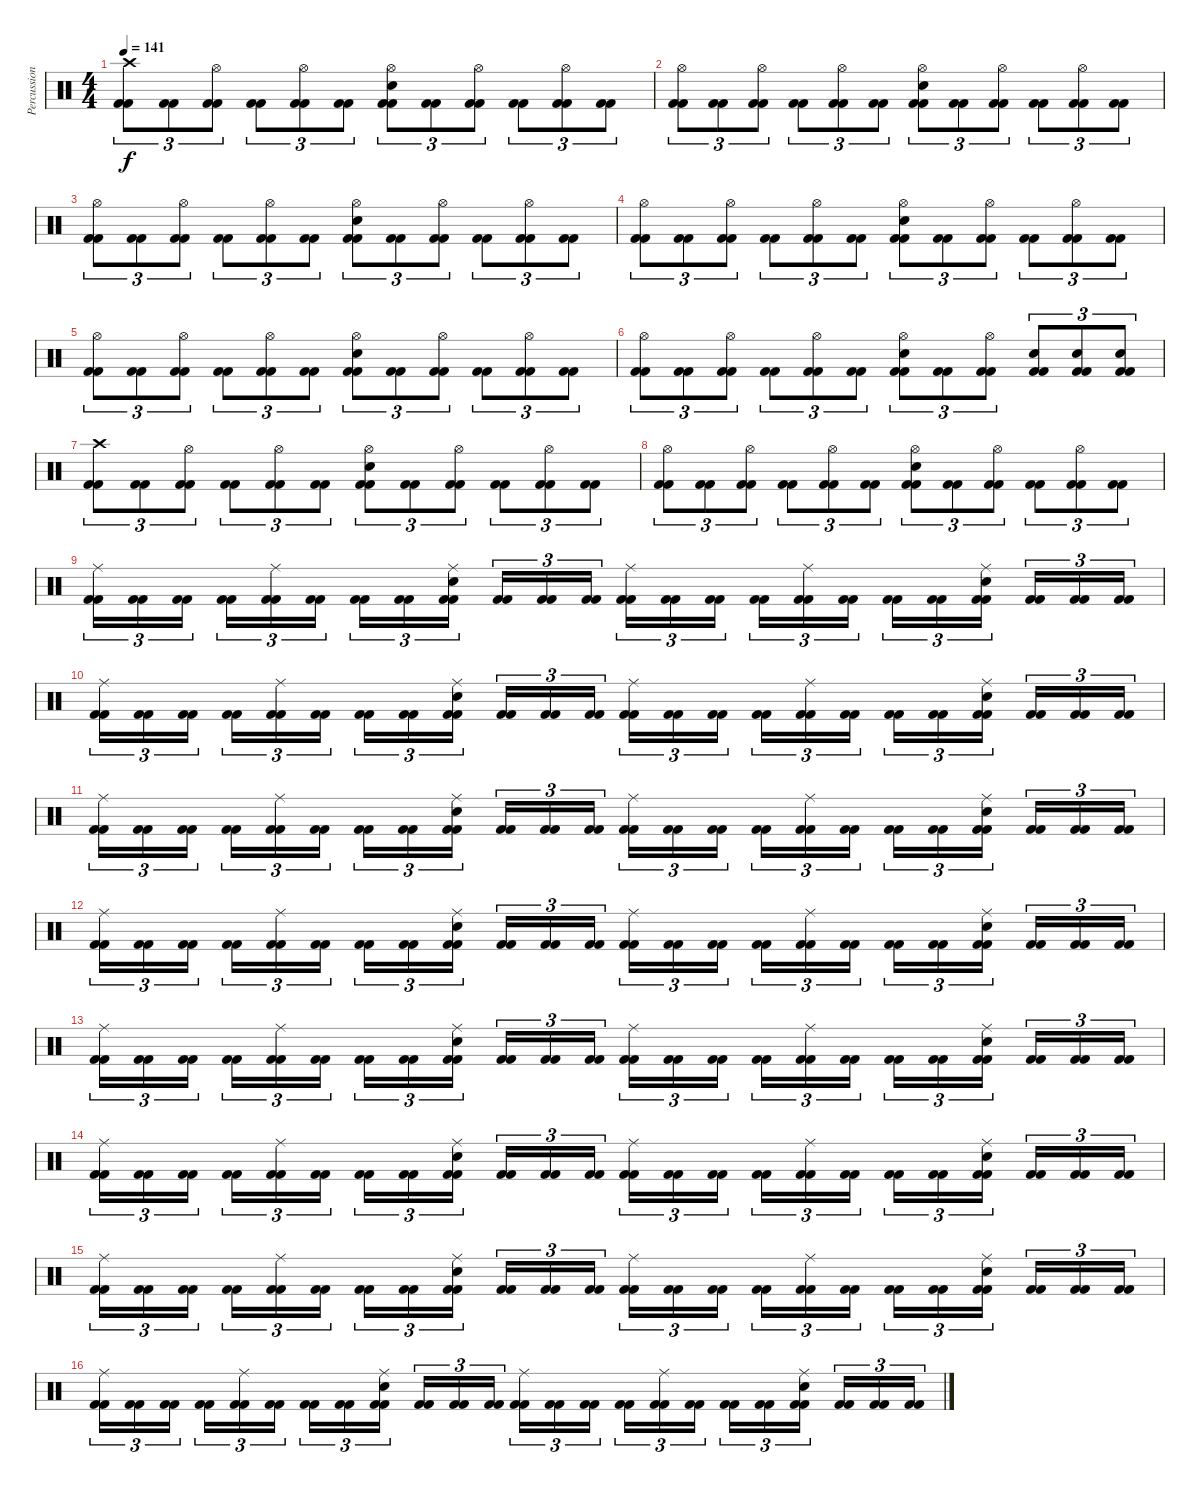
\track ("Percussions" "Percussion") {instrument percussion}
\staff {score}
\articulation defaults
\ts (4 4)
\tempo 141
\clef neutral
\ks c
("Crash high (hit)" "Kick (hit) 2" "Kick (hit) 2").8{tu (3 2) dy f} ("Kick (hit) 2" "Kick (hit) 2").8{tu (3 2)} ("Hi-Hat (open)" "Kick (hit) 2" "Kick (hit) 2").8{tu (3 2)} ("Kick (hit) 2" "Kick (hit) 2").8{tu (3 2)} ("Hi-Hat (open)" "Kick (hit) 2" "Kick (hit) 2").8{tu (3 2)} ("Kick (hit) 2" "Kick (hit) 2").8{tu (3 2)} ("Hi-Hat (open)" "Snare (hit) 2" "Kick (hit) 2" "Kick (hit) 2").8{tu (3 2)} ("Kick (hit) 2" "Kick (hit) 2").8{tu (3 2)} ("Hi-Hat (open)" "Kick (hit) 2" "Kick (hit) 2").8{tu (3 2)} ("Kick (hit) 2" "Kick (hit) 2").8{tu (3 2)} ("Hi-Hat (open)" "Kick (hit) 2" "Kick (hit) 2").8{tu (3 2)} ("Kick (hit) 2" "Kick (hit) 2").8{tu (3 2)} |
("Hi-Hat (open)" "Kick (hit) 2" "Kick (hit) 2").8{tu (3 2)} ("Kick (hit) 2" "Kick (hit) 2").8{tu (3 2)} ("Hi-Hat (open)" "Kick (hit) 2" "Kick (hit) 2").8{tu (3 2)} ("Kick (hit) 2" "Kick (hit) 2").8{tu (3 2)} ("Hi-Hat (open)" "Kick (hit) 2" "Kick (hit) 2").8{tu (3 2)} ("Kick (hit) 2" "Kick (hit) 2").8{tu (3 2)} ("Hi-Hat (open)" "Snare (hit) 2" "Kick (hit) 2" "Kick (hit) 2").8{tu (3 2)} ("Kick (hit) 2" "Kick (hit) 2").8{tu (3 2)} ("Hi-Hat (open)" "Kick (hit) 2" "Kick (hit) 2").8{tu (3 2)} ("Kick (hit) 2" "Kick (hit) 2").8{tu (3 2)} ("Hi-Hat (open)" "Kick (hit) 2" "Kick (hit) 2").8{tu (3 2)} ("Kick (hit) 2" "Kick (hit) 2").8{tu (3 2)} |
("Hi-Hat (open)" "Kick (hit) 2" "Kick (hit) 2").8{tu (3 2)} ("Kick (hit) 2" "Kick (hit) 2").8{tu (3 2)} ("Hi-Hat (open)" "Kick (hit) 2" "Kick (hit) 2").8{tu (3 2)} ("Kick (hit) 2" "Kick (hit) 2").8{tu (3 2)} ("Hi-Hat (open)" "Kick (hit) 2" "Kick (hit) 2").8{tu (3 2)} ("Kick (hit) 2" "Kick (hit) 2").8{tu (3 2)} ("Hi-Hat (open)" "Snare (hit) 2" "Kick (hit) 2" "Kick (hit) 2").8{tu (3 2)} ("Kick (hit) 2" "Kick (hit) 2").8{tu (3 2)} ("Hi-Hat (open)" "Kick (hit) 2" "Kick (hit) 2").8{tu (3 2)} ("Kick (hit) 2" "Kick (hit) 2").8{tu (3 2)} ("Hi-Hat (open)" "Kick (hit) 2" "Kick (hit) 2").8{tu (3 2)} ("Kick (hit) 2" "Kick (hit) 2").8{tu (3 2)} |
("Hi-Hat (open)" "Kick (hit) 2" "Kick (hit) 2").8{tu (3 2)} ("Kick (hit) 2" "Kick (hit) 2").8{tu (3 2)} ("Hi-Hat (open)" "Kick (hit) 2" "Kick (hit) 2").8{tu (3 2)} ("Kick (hit) 2" "Kick (hit) 2").8{tu (3 2)} ("Hi-Hat (open)" "Kick (hit) 2" "Kick (hit) 2").8{tu (3 2)} ("Kick (hit) 2" "Kick (hit) 2").8{tu (3 2)} ("Hi-Hat (open)" "Snare (hit) 2" "Kick (hit) 2" "Kick (hit) 2").8{tu (3 2)} ("Kick (hit) 2" "Kick (hit) 2").8{tu (3 2)} ("Hi-Hat (open)" "Kick (hit) 2" "Kick (hit) 2").8{tu (3 2)} ("Kick (hit) 2" "Kick (hit) 2").8{tu (3 2)} ("Hi-Hat (open)" "Kick (hit) 2" "Kick (hit) 2").8{tu (3 2)} ("Kick (hit) 2" "Kick (hit) 2").8{tu (3 2)} |
("Hi-Hat (open)" "Kick (hit) 2" "Kick (hit) 2").8{tu (3 2)} ("Kick (hit) 2" "Kick (hit) 2").8{tu (3 2)} ("Hi-Hat (open)" "Kick (hit) 2" "Kick (hit) 2").8{tu (3 2)} ("Kick (hit) 2" "Kick (hit) 2").8{tu (3 2)} ("Hi-Hat (open)" "Kick (hit) 2" "Kick (hit) 2").8{tu (3 2)} ("Kick (hit) 2" "Kick (hit) 2").8{tu (3 2)} ("Hi-Hat (open)" "Snare (hit) 2" "Kick (hit) 2" "Kick (hit) 2").8{tu (3 2)} ("Kick (hit) 2" "Kick (hit) 2").8{tu (3 2)} ("Hi-Hat (open)" "Kick (hit) 2" "Kick (hit) 2").8{tu (3 2)} ("Kick (hit) 2" "Kick (hit) 2").8{tu (3 2)} ("Hi-Hat (open)" "Kick (hit) 2" "Kick (hit) 2").8{tu (3 2)} ("Kick (hit) 2" "Kick (hit) 2").8{tu (3 2)} |
("Hi-Hat (open)" "Kick (hit) 2" "Kick (hit) 2").8{tu (3 2)} ("Kick (hit) 2" "Kick (hit) 2").8{tu (3 2)} ("Hi-Hat (open)" "Kick (hit) 2" "Kick (hit) 2").8{tu (3 2)} ("Kick (hit) 2" "Kick (hit) 2").8{tu (3 2)} ("Hi-Hat (open)" "Kick (hit) 2" "Kick (hit) 2").8{tu (3 2)} ("Kick (hit) 2" "Kick (hit) 2").8{tu (3 2)} ("Hi-Hat (open)" "Snare (hit) 2" "Kick (hit) 2" "Kick (hit) 2").8{tu (3 2)} ("Kick (hit) 2" "Kick (hit) 2").8{tu (3 2)} ("Hi-Hat (open)" "Kick (hit) 2" "Kick (hit) 2").8{tu (3 2)} ("Snare (hit) 2" "Kick (hit) 2" "Kick (hit) 2").8{tu (3 2)} ("Snare (hit) 2" "Kick (hit) 2" "Kick (hit) 2").8{tu (3 2)} ("Snare (hit) 2" "Kick (hit) 2" "Kick (hit) 2").8{tu (3 2)} |
("Crash high (hit)" "Kick (hit) 2" "Kick (hit) 2").8{tu (3 2)} ("Kick (hit) 2" "Kick (hit) 2").8{tu (3 2)} ("Hi-Hat (open)" "Kick (hit) 2" "Kick (hit) 2").8{tu (3 2)} ("Kick (hit) 2" "Kick (hit) 2").8{tu (3 2)} ("Hi-Hat (open)" "Kick (hit) 2" "Kick (hit) 2").8{tu (3 2)} ("Kick (hit) 2" "Kick (hit) 2").8{tu (3 2)} ("Hi-Hat (open)" "Snare (hit) 2" "Kick (hit) 2" "Kick (hit) 2").8{tu (3 2)} ("Kick (hit) 2" "Kick (hit) 2").8{tu (3 2)} ("Hi-Hat (open)" "Kick (hit) 2" "Kick (hit) 2").8{tu (3 2)} ("Kick (hit) 2" "Kick (hit) 2").8{tu (3 2)} ("Hi-Hat (open)" "Kick (hit) 2" "Kick (hit) 2").8{tu (3 2)} ("Kick (hit) 2" "Kick (hit) 2").8{tu (3 2)} |
("Hi-Hat (open)" "Kick (hit) 2" "Kick (hit) 2").8{tu (3 2)} ("Kick (hit) 2" "Kick (hit) 2").8{tu (3 2)} ("Hi-Hat (open)" "Kick (hit) 2" "Kick (hit) 2").8{tu (3 2)} ("Kick (hit) 2" "Kick (hit) 2").8{tu (3 2)} ("Hi-Hat (open)" "Kick (hit) 2" "Kick (hit) 2").8{tu (3 2)} ("Kick (hit) 2" "Kick (hit) 2").8{tu (3 2)} ("Hi-Hat (open)" "Snare (hit) 2" "Kick (hit) 2" "Kick (hit) 2").8{tu (3 2)} ("Kick (hit) 2" "Kick (hit) 2").8{tu (3 2)} ("Hi-Hat (open)" "Kick (hit) 2" "Kick (hit) 2").8{tu (3 2)} ("Kick (hit) 2" "Kick (hit) 2").8{tu (3 2)} ("Hi-Hat (open)" "Kick (hit) 2" "Kick (hit) 2").8{tu (3 2)} ("Kick (hit) 2" "Kick (hit) 2").8{tu (3 2)} |
("Ride (middle)" "Kick (hit) 2" "Kick (hit) 2").16{tu (3 2)} ("Kick (hit) 2" "Kick (hit) 2").16{tu (3 2)} ("Kick (hit) 2" "Kick (hit) 2").16{tu (3 2)} ("Kick (hit) 2" "Kick (hit) 2").16{tu (3 2)} ("Ride (middle)" "Kick (hit) 2" "Kick (hit) 2").16{tu (3 2)} ("Kick (hit) 2" "Kick (hit) 2").16{tu (3 2)} ("Kick (hit) 2" "Kick (hit) 2").16{tu (3 2)} ("Kick (hit) 2" "Kick (hit) 2").16{tu (3 2)} ("Ride (middle)" "Snare (hit) 2" "Kick (hit) 2" "Kick (hit) 2").16{tu (3 2)} ("Kick (hit) 2" "Kick (hit) 2").16{tu (3 2)} ("Kick (hit) 2" "Kick (hit) 2").16{tu (3 2)} ("Kick (hit) 2" "Kick (hit) 2").16{tu (3 2)} ("Ride (middle)" "Kick (hit) 2" "Kick (hit) 2").16{tu (3 2)} ("Kick (hit) 2" "Kick (hit) 2").16{tu (3 2)} ("Kick (hit) 2" "Kick (hit) 2").16{tu (3 2)} ("Kick (hit) 2" "Kick (hit) 2").16{tu (3 2)} ("Ride (middle)" "Kick (hit) 2" "Kick (hit) 2").16{tu (3 2)} ("Kick (hit) 2" "Kick (hit) 2").16{tu (3 2)} ("Kick (hit) 2" "Kick (hit) 2").16{tu (3 2)} ("Kick (hit) 2" "Kick (hit) 2").16{tu (3 2)} ("Ride (middle)" "Snare (hit) 2" "Kick (hit) 2" "Kick (hit) 2").16{tu (3 2)} ("Kick (hit) 2" "Kick (hit) 2").16{tu (3 2)} ("Kick (hit) 2" "Kick (hit) 2").16{tu (3 2)} ("Kick (hit) 2" "Kick (hit) 2").16{tu (3 2)} |
("Ride (middle)" "Kick (hit) 2" "Kick (hit) 2").16{tu (3 2)} ("Kick (hit) 2" "Kick (hit) 2").16{tu (3 2)} ("Kick (hit) 2" "Kick (hit) 2").16{tu (3 2)} ("Kick (hit) 2" "Kick (hit) 2").16{tu (3 2)} ("Ride (middle)" "Kick (hit) 2" "Kick (hit) 2").16{tu (3 2)} ("Kick (hit) 2" "Kick (hit) 2").16{tu (3 2)} ("Kick (hit) 2" "Kick (hit) 2").16{tu (3 2)} ("Kick (hit) 2" "Kick (hit) 2").16{tu (3 2)} ("Ride (middle)" "Snare (hit) 2" "Kick (hit) 2" "Kick (hit) 2").16{tu (3 2)} ("Kick (hit) 2" "Kick (hit) 2").16{tu (3 2)} ("Kick (hit) 2" "Kick (hit) 2").16{tu (3 2)} ("Kick (hit) 2" "Kick (hit) 2").16{tu (3 2)} ("Ride (middle)" "Kick (hit) 2" "Kick (hit) 2").16{tu (3 2)} ("Kick (hit) 2" "Kick (hit) 2").16{tu (3 2)} ("Kick (hit) 2" "Kick (hit) 2").16{tu (3 2)} ("Kick (hit) 2" "Kick (hit) 2").16{tu (3 2)} ("Ride (middle)" "Kick (hit) 2" "Kick (hit) 2").16{tu (3 2)} ("Kick (hit) 2" "Kick (hit) 2").16{tu (3 2)} ("Kick (hit) 2" "Kick (hit) 2").16{tu (3 2)} ("Kick (hit) 2" "Kick (hit) 2").16{tu (3 2)} ("Ride (middle)" "Snare (hit) 2" "Kick (hit) 2" "Kick (hit) 2").16{tu (3 2)} ("Kick (hit) 2" "Kick (hit) 2").16{tu (3 2)} ("Kick (hit) 2" "Kick (hit) 2").16{tu (3 2)} ("Kick (hit) 2" "Kick (hit) 2").16{tu (3 2)} |
("Ride (middle)" "Kick (hit) 2" "Kick (hit) 2").16{tu (3 2)} ("Kick (hit) 2" "Kick (hit) 2").16{tu (3 2)} ("Kick (hit) 2" "Kick (hit) 2").16{tu (3 2)} ("Kick (hit) 2" "Kick (hit) 2").16{tu (3 2)} ("Ride (middle)" "Kick (hit) 2" "Kick (hit) 2").16{tu (3 2)} ("Kick (hit) 2" "Kick (hit) 2").16{tu (3 2)} ("Kick (hit) 2" "Kick (hit) 2").16{tu (3 2)} ("Kick (hit) 2" "Kick (hit) 2").16{tu (3 2)} ("Ride (middle)" "Snare (hit) 2" "Kick (hit) 2" "Kick (hit) 2").16{tu (3 2)} ("Kick (hit) 2" "Kick (hit) 2").16{tu (3 2)} ("Kick (hit) 2" "Kick (hit) 2").16{tu (3 2)} ("Kick (hit) 2" "Kick (hit) 2").16{tu (3 2)} ("Ride (middle)" "Kick (hit) 2" "Kick (hit) 2").16{tu (3 2)} ("Kick (hit) 2" "Kick (hit) 2").16{tu (3 2)} ("Kick (hit) 2" "Kick (hit) 2").16{tu (3 2)} ("Kick (hit) 2" "Kick (hit) 2").16{tu (3 2)} ("Ride (middle)" "Kick (hit) 2" "Kick (hit) 2").16{tu (3 2)} ("Kick (hit) 2" "Kick (hit) 2").16{tu (3 2)} ("Kick (hit) 2" "Kick (hit) 2").16{tu (3 2)} ("Kick (hit) 2" "Kick (hit) 2").16{tu (3 2)} ("Ride (middle)" "Snare (hit) 2" "Kick (hit) 2" "Kick (hit) 2").16{tu (3 2)} ("Kick (hit) 2" "Kick (hit) 2").16{tu (3 2)} ("Kick (hit) 2" "Kick (hit) 2").16{tu (3 2)} ("Kick (hit) 2" "Kick (hit) 2").16{tu (3 2)} |
("Ride (middle)" "Kick (hit) 2" "Kick (hit) 2").16{tu (3 2)} ("Kick (hit) 2" "Kick (hit) 2").16{tu (3 2)} ("Kick (hit) 2" "Kick (hit) 2").16{tu (3 2)} ("Kick (hit) 2" "Kick (hit) 2").16{tu (3 2)} ("Ride (middle)" "Kick (hit) 2" "Kick (hit) 2").16{tu (3 2)} ("Kick (hit) 2" "Kick (hit) 2").16{tu (3 2)} ("Kick (hit) 2" "Kick (hit) 2").16{tu (3 2)} ("Kick (hit) 2" "Kick (hit) 2").16{tu (3 2)} ("Ride (middle)" "Snare (hit) 2" "Kick (hit) 2" "Kick (hit) 2").16{tu (3 2)} ("Kick (hit) 2" "Kick (hit) 2").16{tu (3 2)} ("Kick (hit) 2" "Kick (hit) 2").16{tu (3 2)} ("Kick (hit) 2" "Kick (hit) 2").16{tu (3 2)} ("Ride (middle)" "Kick (hit) 2" "Kick (hit) 2").16{tu (3 2)} ("Kick (hit) 2" "Kick (hit) 2").16{tu (3 2)} ("Kick (hit) 2" "Kick (hit) 2").16{tu (3 2)} ("Kick (hit) 2" "Kick (hit) 2").16{tu (3 2)} ("Ride (middle)" "Kick (hit) 2" "Kick (hit) 2").16{tu (3 2)} ("Kick (hit) 2" "Kick (hit) 2").16{tu (3 2)} ("Kick (hit) 2" "Kick (hit) 2").16{tu (3 2)} ("Kick (hit) 2" "Kick (hit) 2").16{tu (3 2)} ("Ride (middle)" "Snare (hit) 2" "Kick (hit) 2" "Kick (hit) 2").16{tu (3 2)} ("Kick (hit) 2" "Kick (hit) 2").16{tu (3 2)} ("Kick (hit) 2" "Kick (hit) 2").16{tu (3 2)} ("Kick (hit) 2" "Kick (hit) 2").16{tu (3 2)} |
("Ride (middle)" "Kick (hit) 2" "Kick (hit) 2").16{tu (3 2)} ("Kick (hit) 2" "Kick (hit) 2").16{tu (3 2)} ("Kick (hit) 2" "Kick (hit) 2").16{tu (3 2)} ("Kick (hit) 2" "Kick (hit) 2").16{tu (3 2)} ("Ride (middle)" "Kick (hit) 2" "Kick (hit) 2").16{tu (3 2)} ("Kick (hit) 2" "Kick (hit) 2").16{tu (3 2)} ("Kick (hit) 2" "Kick (hit) 2").16{tu (3 2)} ("Kick (hit) 2" "Kick (hit) 2").16{tu (3 2)} ("Ride (middle)" "Snare (hit) 2" "Kick (hit) 2" "Kick (hit) 2").16{tu (3 2)} ("Kick (hit) 2" "Kick (hit) 2").16{tu (3 2)} ("Kick (hit) 2" "Kick (hit) 2").16{tu (3 2)} ("Kick (hit) 2" "Kick (hit) 2").16{tu (3 2)} ("Ride (middle)" "Kick (hit) 2" "Kick (hit) 2").16{tu (3 2)} ("Kick (hit) 2" "Kick (hit) 2").16{tu (3 2)} ("Kick (hit) 2" "Kick (hit) 2").16{tu (3 2)} ("Kick (hit) 2" "Kick (hit) 2").16{tu (3 2)} ("Ride (middle)" "Kick (hit) 2" "Kick (hit) 2").16{tu (3 2)} ("Kick (hit) 2" "Kick (hit) 2").16{tu (3 2)} ("Kick (hit) 2" "Kick (hit) 2").16{tu (3 2)} ("Kick (hit) 2" "Kick (hit) 2").16{tu (3 2)} ("Ride (middle)" "Snare (hit) 2" "Kick (hit) 2" "Kick (hit) 2").16{tu (3 2)} ("Kick (hit) 2" "Kick (hit) 2").16{tu (3 2)} ("Kick (hit) 2" "Kick (hit) 2").16{tu (3 2)} ("Kick (hit) 2" "Kick (hit) 2").16{tu (3 2)} |
("Ride (middle)" "Kick (hit) 2" "Kick (hit) 2").16{tu (3 2)} ("Kick (hit) 2" "Kick (hit) 2").16{tu (3 2)} ("Kick (hit) 2" "Kick (hit) 2").16{tu (3 2)} ("Kick (hit) 2" "Kick (hit) 2").16{tu (3 2)} ("Ride (middle)" "Kick (hit) 2" "Kick (hit) 2").16{tu (3 2)} ("Kick (hit) 2" "Kick (hit) 2").16{tu (3 2)} ("Kick (hit) 2" "Kick (hit) 2").16{tu (3 2)} ("Kick (hit) 2" "Kick (hit) 2").16{tu (3 2)} ("Ride (middle)" "Snare (hit) 2" "Kick (hit) 2" "Kick (hit) 2").16{tu (3 2)} ("Kick (hit) 2" "Kick (hit) 2").16{tu (3 2)} ("Kick (hit) 2" "Kick (hit) 2").16{tu (3 2)} ("Kick (hit) 2" "Kick (hit) 2").16{tu (3 2)} ("Ride (middle)" "Kick (hit) 2" "Kick (hit) 2").16{tu (3 2)} ("Kick (hit) 2" "Kick (hit) 2").16{tu (3 2)} ("Kick (hit) 2" "Kick (hit) 2").16{tu (3 2)} ("Kick (hit) 2" "Kick (hit) 2").16{tu (3 2)} ("Ride (middle)" "Kick (hit) 2" "Kick (hit) 2").16{tu (3 2)} ("Kick (hit) 2" "Kick (hit) 2").16{tu (3 2)} ("Kick (hit) 2" "Kick (hit) 2").16{tu (3 2)} ("Kick (hit) 2" "Kick (hit) 2").16{tu (3 2)} ("Ride (middle)" "Snare (hit) 2" "Kick (hit) 2" "Kick (hit) 2").16{tu (3 2)} ("Kick (hit) 2" "Kick (hit) 2").16{tu (3 2)} ("Kick (hit) 2" "Kick (hit) 2").16{tu (3 2)} ("Kick (hit) 2" "Kick (hit) 2").16{tu (3 2)} |
("Ride (middle)" "Kick (hit) 2" "Kick (hit) 2").16{tu (3 2)} ("Kick (hit) 2" "Kick (hit) 2").16{tu (3 2)} ("Kick (hit) 2" "Kick (hit) 2").16{tu (3 2)} ("Kick (hit) 2" "Kick (hit) 2").16{tu (3 2)} ("Ride (middle)" "Kick (hit) 2" "Kick (hit) 2").16{tu (3 2)} ("Kick (hit) 2" "Kick (hit) 2").16{tu (3 2)} ("Kick (hit) 2" "Kick (hit) 2").16{tu (3 2)} ("Kick (hit) 2" "Kick (hit) 2").16{tu (3 2)} ("Ride (middle)" "Snare (hit) 2" "Kick (hit) 2" "Kick (hit) 2").16{tu (3 2)} ("Kick (hit) 2" "Kick (hit) 2").16{tu (3 2)} ("Kick (hit) 2" "Kick (hit) 2").16{tu (3 2)} ("Kick (hit) 2" "Kick (hit) 2").16{tu (3 2)} ("Ride (middle)" "Kick (hit) 2" "Kick (hit) 2").16{tu (3 2)} ("Kick (hit) 2" "Kick (hit) 2").16{tu (3 2)} ("Kick (hit) 2" "Kick (hit) 2").16{tu (3 2)} ("Kick (hit) 2" "Kick (hit) 2").16{tu (3 2)} ("Ride (middle)" "Kick (hit) 2" "Kick (hit) 2").16{tu (3 2)} ("Kick (hit) 2" "Kick (hit) 2").16{tu (3 2)} ("Kick (hit) 2" "Kick (hit) 2").16{tu (3 2)} ("Kick (hit) 2" "Kick (hit) 2").16{tu (3 2)} ("Ride (middle)" "Snare (hit) 2" "Kick (hit) 2" "Kick (hit) 2").16{tu (3 2)} ("Kick (hit) 2" "Kick (hit) 2").16{tu (3 2)} ("Kick (hit) 2" "Kick (hit) 2").16{tu (3 2)} ("Kick (hit) 2" "Kick (hit) 2").16{tu (3 2)} |
("Ride (middle)" "Kick (hit) 2" "Kick (hit) 2").16{tu (3 2)} ("Kick (hit) 2" "Kick (hit) 2").16{tu (3 2)} ("Kick (hit) 2" "Kick (hit) 2").16{tu (3 2)} ("Kick (hit) 2" "Kick (hit) 2").16{tu (3 2)} ("Ride (middle)" "Kick (hit) 2" "Kick (hit) 2").16{tu (3 2)} ("Kick (hit) 2" "Kick (hit) 2").16{tu (3 2)} ("Kick (hit) 2" "Kick (hit) 2").16{tu (3 2)} ("Kick (hit) 2" "Kick (hit) 2").16{tu (3 2)} ("Ride (middle)" "Snare (hit) 2" "Kick (hit) 2" "Kick (hit) 2").16{tu (3 2)} ("Kick (hit) 2" "Kick (hit) 2").16{tu (3 2)} ("Kick (hit) 2" "Kick (hit) 2").16{tu (3 2)} ("Kick (hit) 2" "Kick (hit) 2").16{tu (3 2)} ("Ride (middle)" "Kick (hit) 2" "Kick (hit) 2").16{tu (3 2)} ("Kick (hit) 2" "Kick (hit) 2").16{tu (3 2)} ("Kick (hit) 2" "Kick (hit) 2").16{tu (3 2)} ("Kick (hit) 2" "Kick (hit) 2").16{tu (3 2)} ("Ride (middle)" "Kick (hit) 2" "Kick (hit) 2").16{tu (3 2)} ("Kick (hit) 2" "Kick (hit) 2").16{tu (3 2)} ("Kick (hit) 2" "Kick (hit) 2").16{tu (3 2)} ("Kick (hit) 2" "Kick (hit) 2").16{tu (3 2)} ("Ride (middle)" "Snare (hit) 2" "Kick (hit) 2" "Kick (hit) 2").16{tu (3 2)} ("Kick (hit) 2" "Kick (hit) 2").16{tu (3 2)} ("Kick (hit) 2" "Kick (hit) 2").16{tu (3 2)} ("Kick (hit) 2" "Kick (hit) 2").16{tu (3 2)}
